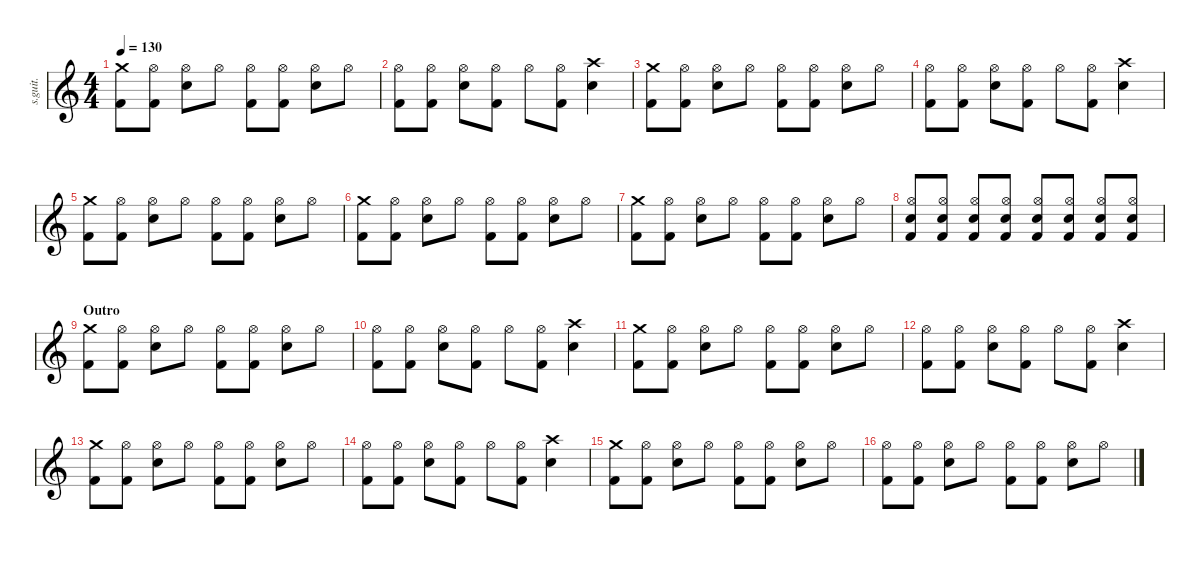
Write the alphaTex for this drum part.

\defaultSystemsLayout 4
\hideDynamics
\bracketExtendMode nobrackets
\track ("Rowntree & Coxon - Drums" "s.guit.") {instrument percussion}
\staff {score}
\articulation defaults
\ts (4 4)
\tempo 130
\clef g2
\ks c
("Crash medium (hit)" "Kick (hit) 2").8{lyrics (0 "") lyrics (1 "") lyrics (2 "") lyrics (3 "") lyrics (4 "") dy f} ("Hi-Hat (open)" "Kick (hit) 2").8{lyrics (0 "") lyrics (1 "") lyrics (2 "") lyrics (3 "") lyrics (4 "")} ("Snare (hit) 2" "Hi-Hat (open)").8{lyrics (0 "") lyrics (1 "") lyrics (2 "") lyrics (3 "") lyrics (4 "")} "Hi-Hat (open)".8{lyrics (0 "") lyrics (1 "") lyrics (2 "") lyrics (3 "") lyrics (4 "")} ("Hi-Hat (open)" "Kick (hit) 2").8{lyrics (0 "") lyrics (1 "") lyrics (2 "") lyrics (3 "") lyrics (4 "")} ("Hi-Hat (open)" "Kick (hit) 2").8{lyrics (0 "") lyrics (1 "") lyrics (2 "") lyrics (3 "") lyrics (4 "")} ("Snare (hit) 2" "Hi-Hat (open)").8{lyrics (0 "") lyrics (1 "") lyrics (2 "") lyrics (3 "") lyrics (4 "")} "Hi-Hat (open)".8{lyrics (0 "") lyrics (1 "") lyrics (2 "") lyrics (3 "") lyrics (4 "")} |
("Hi-Hat (open)" "Kick (hit) 2").8{lyrics (0 "") lyrics (1 "") lyrics (2 "") lyrics (3 "") lyrics (4 "")} ("Hi-Hat (open)" "Kick (hit) 2").8{lyrics (0 "") lyrics (1 "") lyrics (2 "") lyrics (3 "") lyrics (4 "")} ("Snare (hit) 2" "Hi-Hat (open)").8{lyrics (0 "") lyrics (1 "") lyrics (2 "") lyrics (3 "") lyrics (4 "")} ("Hi-Hat (open)" "Kick (hit) 2").8{lyrics (0 "") lyrics (1 "") lyrics (2 "") lyrics (3 "") lyrics (4 "")} "Hi-Hat (open)".8{lyrics (0 "") lyrics (1 "") lyrics (2 "") lyrics (3 "") lyrics (4 "")} ("Hi-Hat (open)" "Kick (hit) 2").8{lyrics (0 "") lyrics (1 "") lyrics (2 "") lyrics (3 "") lyrics (4 "")} ("Snare (hit) 2" "Crash high (hit)").4{lyrics (0 "") lyrics (1 "") lyrics (2 "") lyrics (3 "") lyrics (4 "")} |
("Crash medium (hit)" "Kick (hit) 2").8{lyrics (0 "") lyrics (1 "") lyrics (2 "") lyrics (3 "") lyrics (4 "")} ("Hi-Hat (open)" "Kick (hit) 2").8{lyrics (0 "") lyrics (1 "") lyrics (2 "") lyrics (3 "") lyrics (4 "")} ("Snare (hit) 2" "Hi-Hat (open)").8{lyrics (0 "") lyrics (1 "") lyrics (2 "") lyrics (3 "") lyrics (4 "")} "Hi-Hat (open)".8{lyrics (0 "") lyrics (1 "") lyrics (2 "") lyrics (3 "") lyrics (4 "")} ("Hi-Hat (open)" "Kick (hit) 2").8{lyrics (0 "") lyrics (1 "") lyrics (2 "") lyrics (3 "") lyrics (4 "")} ("Hi-Hat (open)" "Kick (hit) 2").8{lyrics (0 "") lyrics (1 "") lyrics (2 "") lyrics (3 "") lyrics (4 "")} ("Snare (hit) 2" "Hi-Hat (open)").8{lyrics (0 "") lyrics (1 "") lyrics (2 "") lyrics (3 "") lyrics (4 "")} "Hi-Hat (open)".8{lyrics (0 "") lyrics (1 "") lyrics (2 "") lyrics (3 "") lyrics (4 "")} |
("Hi-Hat (open)" "Kick (hit) 2").8{lyrics (0 "") lyrics (1 "") lyrics (2 "") lyrics (3 "") lyrics (4 "")} ("Hi-Hat (open)" "Kick (hit) 2").8{lyrics (0 "") lyrics (1 "") lyrics (2 "") lyrics (3 "") lyrics (4 "")} ("Snare (hit) 2" "Hi-Hat (open)").8{lyrics (0 "") lyrics (1 "") lyrics (2 "") lyrics (3 "") lyrics (4 "")} ("Hi-Hat (open)" "Kick (hit) 2").8{lyrics (0 "") lyrics (1 "") lyrics (2 "") lyrics (3 "") lyrics (4 "")} "Hi-Hat (open)".8{lyrics (0 "") lyrics (1 "") lyrics (2 "") lyrics (3 "") lyrics (4 "")} ("Hi-Hat (open)" "Kick (hit) 2").8{lyrics (0 "") lyrics (1 "") lyrics (2 "") lyrics (3 "") lyrics (4 "")} ("Snare (hit) 2" "Crash high (hit)").4{lyrics (0 "") lyrics (1 "") lyrics (2 "") lyrics (3 "") lyrics (4 "")} |
("Crash medium (hit)" "Kick (hit) 2").8{lyrics (0 "") lyrics (1 "") lyrics (2 "") lyrics (3 "") lyrics (4 "")} ("Hi-Hat (open)" "Kick (hit) 2").8{lyrics (0 "") lyrics (1 "") lyrics (2 "") lyrics (3 "") lyrics (4 "")} ("Snare (hit) 2" "Hi-Hat (open)").8{lyrics (0 "") lyrics (1 "") lyrics (2 "") lyrics (3 "") lyrics (4 "")} "Hi-Hat (open)".8{lyrics (0 "") lyrics (1 "") lyrics (2 "") lyrics (3 "") lyrics (4 "")} ("Hi-Hat (open)" "Kick (hit) 2").8{lyrics (0 "") lyrics (1 "") lyrics (2 "") lyrics (3 "") lyrics (4 "")} ("Hi-Hat (open)" "Kick (hit) 2").8{lyrics (0 "") lyrics (1 "") lyrics (2 "") lyrics (3 "") lyrics (4 "")} ("Snare (hit) 2" "Hi-Hat (open)").8{lyrics (0 "") lyrics (1 "") lyrics (2 "") lyrics (3 "") lyrics (4 "")} "Hi-Hat (open)".8{lyrics (0 "") lyrics (1 "") lyrics (2 "") lyrics (3 "") lyrics (4 "")} |
("Crash medium (hit)" "Kick (hit) 2").8{lyrics (0 "") lyrics (1 "") lyrics (2 "") lyrics (3 "") lyrics (4 "")} ("Hi-Hat (open)" "Kick (hit) 2").8{lyrics (0 "") lyrics (1 "") lyrics (2 "") lyrics (3 "") lyrics (4 "")} ("Snare (hit) 2" "Hi-Hat (open)").8{lyrics (0 "") lyrics (1 "") lyrics (2 "") lyrics (3 "") lyrics (4 "")} "Hi-Hat (open)".8{lyrics (0 "") lyrics (1 "") lyrics (2 "") lyrics (3 "") lyrics (4 "")} ("Hi-Hat (open)" "Kick (hit) 2").8{lyrics (0 "") lyrics (1 "") lyrics (2 "") lyrics (3 "") lyrics (4 "")} ("Hi-Hat (open)" "Kick (hit) 2").8{lyrics (0 "") lyrics (1 "") lyrics (2 "") lyrics (3 "") lyrics (4 "")} ("Snare (hit) 2" "Hi-Hat (open)").8{lyrics (0 "") lyrics (1 "") lyrics (2 "") lyrics (3 "") lyrics (4 "")} "Hi-Hat (open)".8{lyrics (0 "") lyrics (1 "") lyrics (2 "") lyrics (3 "") lyrics (4 "")} |
("Crash medium (hit)" "Kick (hit) 2").8{lyrics (0 "") lyrics (1 "") lyrics (2 "") lyrics (3 "") lyrics (4 "")} ("Hi-Hat (open)" "Kick (hit) 2").8{lyrics (0 "") lyrics (1 "") lyrics (2 "") lyrics (3 "") lyrics (4 "")} ("Snare (hit) 2" "Hi-Hat (open)").8{lyrics (0 "") lyrics (1 "") lyrics (2 "") lyrics (3 "") lyrics (4 "")} "Hi-Hat (open)".8{lyrics (0 "") lyrics (1 "") lyrics (2 "") lyrics (3 "") lyrics (4 "")} ("Hi-Hat (open)" "Kick (hit) 2").8{lyrics (0 "") lyrics (1 "") lyrics (2 "") lyrics (3 "") lyrics (4 "")} ("Hi-Hat (open)" "Kick (hit) 2").8{lyrics (0 "") lyrics (1 "") lyrics (2 "") lyrics (3 "") lyrics (4 "")} ("Snare (hit) 2" "Hi-Hat (open)").8{lyrics (0 "") lyrics (1 "") lyrics (2 "") lyrics (3 "") lyrics (4 "")} "Hi-Hat (open)".8{lyrics (0 "") lyrics (1 "") lyrics (2 "") lyrics (3 "") lyrics (4 "")} |
("Snare (hit) 2" "Hi-Hat (open)" "Kick (hit) 2").8{lyrics (0 "") lyrics (1 "") lyrics (2 "") lyrics (3 "") lyrics (4 "") dy mp} ("Snare (hit) 2" "Hi-Hat (open)" "Kick (hit) 2").8{lyrics (0 "") lyrics (1 "") lyrics (2 "") lyrics (3 "") lyrics (4 "")} ("Snare (hit) 2" "Hi-Hat (open)" "Kick (hit) 2").8{lyrics (0 "") lyrics (1 "") lyrics (2 "") lyrics (3 "") lyrics (4 "") dy mf} ("Snare (hit) 2" "Hi-Hat (open)" "Kick (hit) 2").8{lyrics (0 "") lyrics (1 "") lyrics (2 "") lyrics (3 "") lyrics (4 "")} ("Snare (hit) 2" "Hi-Hat (open)" "Kick (hit) 2").8{lyrics (0 "") lyrics (1 "") lyrics (2 "") lyrics (3 "") lyrics (4 "") dy f} ("Snare (hit) 2" "Hi-Hat (open)" "Kick (hit) 2").8{lyrics (0 "") lyrics (1 "") lyrics (2 "") lyrics (3 "") lyrics (4 "")} ("Snare (hit) 2" "Hi-Hat (open)" "Kick (hit) 2").8{lyrics (0 "") lyrics (1 "") lyrics (2 "") lyrics (3 "") lyrics (4 "") dy ff} ("Snare (hit) 2" "Hi-Hat (open)" "Kick (hit) 2").8{lyrics (0 "") lyrics (1 "") lyrics (2 "") lyrics (3 "") lyrics (4 "")} |
\section ("" "Outro")
("Crash medium (hit)" "Kick (hit) 2").8{lyrics (0 "") lyrics (1 "") lyrics (2 "") lyrics (3 "") lyrics (4 "") dy f} ("Hi-Hat (open)" "Kick (hit) 2").8{lyrics (0 "") lyrics (1 "") lyrics (2 "") lyrics (3 "") lyrics (4 "")} ("Snare (hit) 2" "Hi-Hat (open)").8{lyrics (0 "") lyrics (1 "") lyrics (2 "") lyrics (3 "") lyrics (4 "")} "Hi-Hat (open)".8{lyrics (0 "") lyrics (1 "") lyrics (2 "") lyrics (3 "") lyrics (4 "")} ("Hi-Hat (open)" "Kick (hit) 2").8{lyrics (0 "") lyrics (1 "") lyrics (2 "") lyrics (3 "") lyrics (4 "")} ("Hi-Hat (open)" "Kick (hit) 2").8{lyrics (0 "") lyrics (1 "") lyrics (2 "") lyrics (3 "") lyrics (4 "")} ("Snare (hit) 2" "Hi-Hat (open)").8{lyrics (0 "") lyrics (1 "") lyrics (2 "") lyrics (3 "") lyrics (4 "")} "Hi-Hat (open)".8{lyrics (0 "") lyrics (1 "") lyrics (2 "") lyrics (3 "") lyrics (4 "")} |
("Hi-Hat (open)" "Kick (hit) 2").8{lyrics (0 "") lyrics (1 "") lyrics (2 "") lyrics (3 "") lyrics (4 "")} ("Hi-Hat (open)" "Kick (hit) 2").8{lyrics (0 "") lyrics (1 "") lyrics (2 "") lyrics (3 "") lyrics (4 "")} ("Snare (hit) 2" "Hi-Hat (open)").8{lyrics (0 "") lyrics (1 "") lyrics (2 "") lyrics (3 "") lyrics (4 "")} ("Hi-Hat (open)" "Kick (hit) 2").8{lyrics (0 "") lyrics (1 "") lyrics (2 "") lyrics (3 "") lyrics (4 "")} "Hi-Hat (open)".8{lyrics (0 "") lyrics (1 "") lyrics (2 "") lyrics (3 "") lyrics (4 "")} ("Hi-Hat (open)" "Kick (hit) 2").8{lyrics (0 "") lyrics (1 "") lyrics (2 "") lyrics (3 "") lyrics (4 "")} ("Snare (hit) 2" "Crash high (hit)").4{lyrics (0 "") lyrics (1 "") lyrics (2 "") lyrics (3 "") lyrics (4 "")} |
("Crash medium (hit)" "Kick (hit) 2").8{lyrics (0 "") lyrics (1 "") lyrics (2 "") lyrics (3 "") lyrics (4 "")} ("Hi-Hat (open)" "Kick (hit) 2").8{lyrics (0 "") lyrics (1 "") lyrics (2 "") lyrics (3 "") lyrics (4 "")} ("Snare (hit) 2" "Hi-Hat (open)").8{lyrics (0 "") lyrics (1 "") lyrics (2 "") lyrics (3 "") lyrics (4 "")} "Hi-Hat (open)".8{lyrics (0 "") lyrics (1 "") lyrics (2 "") lyrics (3 "") lyrics (4 "")} ("Hi-Hat (open)" "Kick (hit) 2").8{lyrics (0 "") lyrics (1 "") lyrics (2 "") lyrics (3 "") lyrics (4 "")} ("Hi-Hat (open)" "Kick (hit) 2").8{lyrics (0 "") lyrics (1 "") lyrics (2 "") lyrics (3 "") lyrics (4 "")} ("Snare (hit) 2" "Hi-Hat (open)").8{lyrics (0 "") lyrics (1 "") lyrics (2 "") lyrics (3 "") lyrics (4 "")} "Hi-Hat (open)".8{lyrics (0 "") lyrics (1 "") lyrics (2 "") lyrics (3 "") lyrics (4 "")} |
("Hi-Hat (open)" "Kick (hit) 2").8{lyrics (0 "") lyrics (1 "") lyrics (2 "") lyrics (3 "") lyrics (4 "")} ("Hi-Hat (open)" "Kick (hit) 2").8{lyrics (0 "") lyrics (1 "") lyrics (2 "") lyrics (3 "") lyrics (4 "")} ("Snare (hit) 2" "Hi-Hat (open)").8{lyrics (0 "") lyrics (1 "") lyrics (2 "") lyrics (3 "") lyrics (4 "")} ("Hi-Hat (open)" "Kick (hit) 2").8{lyrics (0 "") lyrics (1 "") lyrics (2 "") lyrics (3 "") lyrics (4 "")} "Hi-Hat (open)".8{lyrics (0 "") lyrics (1 "") lyrics (2 "") lyrics (3 "") lyrics (4 "")} ("Hi-Hat (open)" "Kick (hit) 2").8{lyrics (0 "") lyrics (1 "") lyrics (2 "") lyrics (3 "") lyrics (4 "")} ("Snare (hit) 2" "Crash high (hit)").4{lyrics (0 "") lyrics (1 "") lyrics (2 "") lyrics (3 "") lyrics (4 "")} |
("Crash medium (hit)" "Kick (hit) 2").8{lyrics (0 "") lyrics (1 "") lyrics (2 "") lyrics (3 "") lyrics (4 "")} ("Hi-Hat (open)" "Kick (hit) 2").8{lyrics (0 "") lyrics (1 "") lyrics (2 "") lyrics (3 "") lyrics (4 "")} ("Snare (hit) 2" "Hi-Hat (open)").8{lyrics (0 "") lyrics (1 "") lyrics (2 "") lyrics (3 "") lyrics (4 "")} "Hi-Hat (open)".8{lyrics (0 "") lyrics (1 "") lyrics (2 "") lyrics (3 "") lyrics (4 "")} ("Hi-Hat (open)" "Kick (hit) 2").8{lyrics (0 "") lyrics (1 "") lyrics (2 "") lyrics (3 "") lyrics (4 "")} ("Hi-Hat (open)" "Kick (hit) 2").8{lyrics (0 "") lyrics (1 "") lyrics (2 "") lyrics (3 "") lyrics (4 "")} ("Snare (hit) 2" "Hi-Hat (open)").8{lyrics (0 "") lyrics (1 "") lyrics (2 "") lyrics (3 "") lyrics (4 "")} "Hi-Hat (open)".8{lyrics (0 "") lyrics (1 "") lyrics (2 "") lyrics (3 "") lyrics (4 "")} |
("Hi-Hat (open)" "Kick (hit) 2").8{lyrics (0 "") lyrics (1 "") lyrics (2 "") lyrics (3 "") lyrics (4 "")} ("Hi-Hat (open)" "Kick (hit) 2").8{lyrics (0 "") lyrics (1 "") lyrics (2 "") lyrics (3 "") lyrics (4 "")} ("Snare (hit) 2" "Hi-Hat (open)").8{lyrics (0 "") lyrics (1 "") lyrics (2 "") lyrics (3 "") lyrics (4 "")} ("Hi-Hat (open)" "Kick (hit) 2").8{lyrics (0 "") lyrics (1 "") lyrics (2 "") lyrics (3 "") lyrics (4 "")} "Hi-Hat (open)".8{lyrics (0 "") lyrics (1 "") lyrics (2 "") lyrics (3 "") lyrics (4 "")} ("Hi-Hat (open)" "Kick (hit) 2").8{lyrics (0 "") lyrics (1 "") lyrics (2 "") lyrics (3 "") lyrics (4 "")} ("Snare (hit) 2" "Crash high (hit)").4{lyrics (0 "") lyrics (1 "") lyrics (2 "") lyrics (3 "") lyrics (4 "")} |
("Crash medium (hit)" "Kick (hit) 2").8{lyrics (0 "") lyrics (1 "") lyrics (2 "") lyrics (3 "") lyrics (4 "")} ("Hi-Hat (open)" "Kick (hit) 2").8{lyrics (0 "") lyrics (1 "") lyrics (2 "") lyrics (3 "") lyrics (4 "")} ("Snare (hit) 2" "Hi-Hat (open)").8{lyrics (0 "") lyrics (1 "") lyrics (2 "") lyrics (3 "") lyrics (4 "")} "Hi-Hat (open)".8{lyrics (0 "") lyrics (1 "") lyrics (2 "") lyrics (3 "") lyrics (4 "")} ("Hi-Hat (open)" "Kick (hit) 2").8{lyrics (0 "") lyrics (1 "") lyrics (2 "") lyrics (3 "") lyrics (4 "")} ("Hi-Hat (open)" "Kick (hit) 2").8{lyrics (0 "") lyrics (1 "") lyrics (2 "") lyrics (3 "") lyrics (4 "")} ("Snare (hit) 2" "Hi-Hat (open)").8{lyrics (0 "") lyrics (1 "") lyrics (2 "") lyrics (3 "") lyrics (4 "")} "Hi-Hat (open)".8{lyrics (0 "") lyrics (1 "") lyrics (2 "") lyrics (3 "") lyrics (4 "")} |
("Hi-Hat (open)" "Kick (hit) 2").8{lyrics (0 "") lyrics (1 "") lyrics (2 "") lyrics (3 "") lyrics (4 "")} ("Hi-Hat (open)" "Kick (hit) 2").8{lyrics (0 "") lyrics (1 "") lyrics (2 "") lyrics (3 "") lyrics (4 "")} ("Snare (hit) 2" "Hi-Hat (open)").8{lyrics (0 "") lyrics (1 "") lyrics (2 "") lyrics (3 "") lyrics (4 "")} "Hi-Hat (open)".8{lyrics (0 "") lyrics (1 "") lyrics (2 "") lyrics (3 "") lyrics (4 "")} ("Hi-Hat (open)" "Kick (hit) 2").8{lyrics (0 "") lyrics (1 "") lyrics (2 "") lyrics (3 "") lyrics (4 "")} ("Hi-Hat (open)" "Kick (hit) 2").8{lyrics (0 "") lyrics (1 "") lyrics (2 "") lyrics (3 "") lyrics (4 "")} ("Snare (hit) 2" "Hi-Hat (open)").8{lyrics (0 "") lyrics (1 "") lyrics (2 "") lyrics (3 "") lyrics (4 "")} "Hi-Hat (open)".8{lyrics (0 "") lyrics (1 "") lyrics (2 "") lyrics (3 "") lyrics (4 "")}
